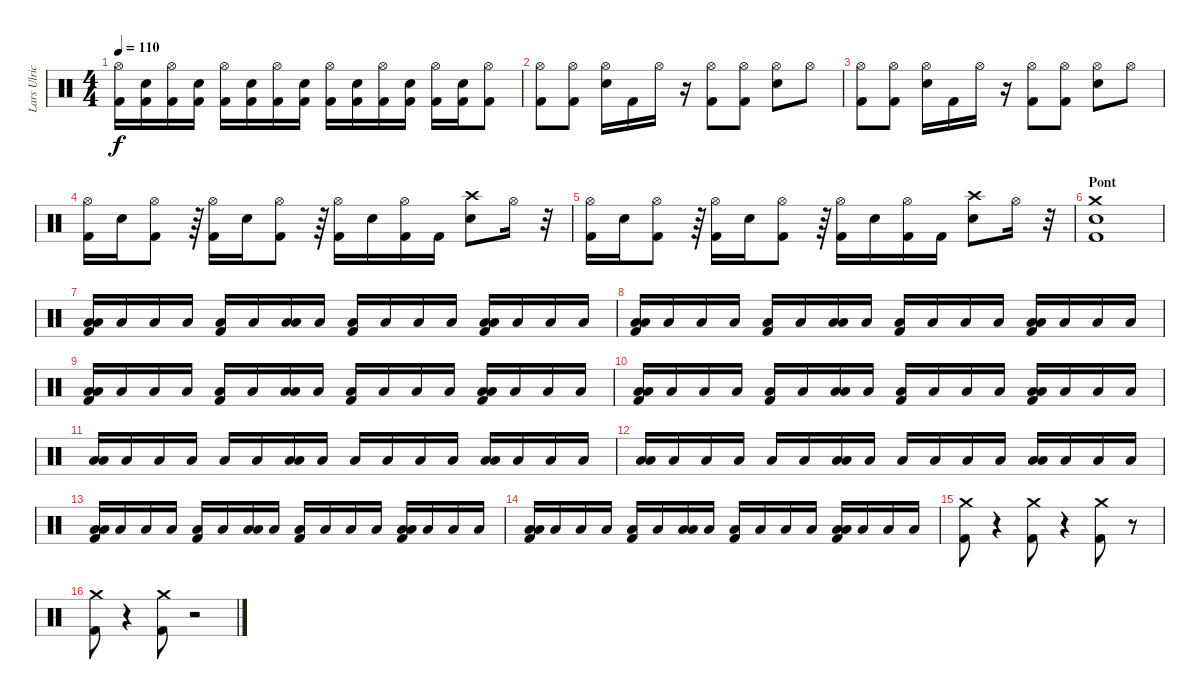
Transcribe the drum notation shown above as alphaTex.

\track ("Lars Ulrich" "Lars Ulric") {instrument percussion}
\staff {score}
\articulation defaults
\ts (4 4)
\tempo 110
\clef neutral
\ks c
("Hi-Hat (open)" "Kick (hit) 2").16{dy f} ("Electric Snare (hit)" "Kick (hit) 2").16 ("Hi-Hat (open)" "Kick (hit) 2").16 ("Electric Snare (hit)" "Kick (hit) 2").16 ("Hi-Hat (open)" "Kick (hit) 2").16 ("Electric Snare (hit)" "Kick (hit) 2").16 ("Hi-Hat (open)" "Kick (hit) 2").16 ("Electric Snare (hit)" "Kick (hit) 2").16 ("Hi-Hat (open)" "Kick (hit) 2").16 ("Electric Snare (hit)" "Kick (hit) 2").16 ("Hi-Hat (open)" "Kick (hit) 2").16 ("Electric Snare (hit)" "Kick (hit) 2").16 ("Hi-Hat (open)" "Kick (hit) 2").16 ("Electric Snare (hit)" "Kick (hit) 2").16 ("Hi-Hat (open)" "Kick (hit) 2").8 |
("Hi-Hat (open)" "Kick (hit) 2").8 ("Hi-Hat (open)" "Kick (hit) 2").8 ("Hi-Hat (open)" "Electric Snare (hit)").16 "Kick (hit) 2".16 "Hi-Hat (open)".16 r.16 ("Hi-Hat (open)" "Kick (hit) 2").8 ("Hi-Hat (open)" "Kick (hit) 2").8 ("Hi-Hat (open)" "Electric Snare (hit)").8 "Hi-Hat (open)".8 |
("Hi-Hat (open)" "Kick (hit) 2").8 ("Hi-Hat (open)" "Kick (hit) 2").8 ("Hi-Hat (open)" "Electric Snare (hit)").16 "Kick (hit) 2".16 "Hi-Hat (open)".16 r.16 ("Hi-Hat (open)" "Kick (hit) 2").8 ("Hi-Hat (open)" "Kick (hit) 2").8 ("Hi-Hat (open)" "Electric Snare (hit)").8 "Hi-Hat (open)".8 |
("Hi-Hat (open)" "Kick (hit) 2").16 "Electric Snare (hit)".16 ("Hi-Hat (open)" "Kick (hit) 2").8 r.64 ("Hi-Hat (open)" "Kick (hit) 2").16 "Electric Snare (hit)".16 ("Hi-Hat (open)" "Kick (hit) 2").8 r.64 ("Hi-Hat (open)" "Kick (hit) 2").16 "Electric Snare (hit)".16 ("Hi-Hat (open)" "Kick (hit) 2").16 "Kick (hit) 2".16 ("Crash high (hit)" "Electric Snare (hit)").8 "Hi-Hat (open)".16 r.32 |
("Hi-Hat (open)" "Kick (hit) 2").16 "Electric Snare (hit)".16 ("Hi-Hat (open)" "Kick (hit) 2").8 r.64 ("Hi-Hat (open)" "Kick (hit) 2").16 "Electric Snare (hit)".16 ("Hi-Hat (open)" "Kick (hit) 2").8 r.64 ("Hi-Hat (open)" "Kick (hit) 2").16 "Electric Snare (hit)".16 ("Hi-Hat (open)" "Kick (hit) 2").16 "Kick (hit) 2".16 ("Crash high (hit)" "Electric Snare (hit)").8 "Hi-Hat (open)".16 r.32 |
\section ("" "Pont")
("Crash medium (hit)" "Electric Snare (hit)" "Kick (hit) 2").1 |
("Low Tom (hit)" "Low Floor Tom (hit)" "Kick (hit) 2").16 "Low Floor Tom (hit)".16 "Low Floor Tom (hit)".16 "Low Floor Tom (hit)".16 ("Low Floor Tom (hit)" "Kick (hit) 2").16 "Low Floor Tom (hit)".16 ("Low Tom (hit)" "Low Floor Tom (hit)").16 "Low Floor Tom (hit)".16 ("Low Floor Tom (hit)" "Kick (hit) 2").16 "Low Floor Tom (hit)".16 "Low Floor Tom (hit)".16 "Low Floor Tom (hit)".16 ("Low Tom (hit)" "Low Floor Tom (hit)" "Kick (hit) 2").16 "Low Floor Tom (hit)".16 "Low Floor Tom (hit)".16 "Low Floor Tom (hit)".16 |
("Low Tom (hit)" "Low Floor Tom (hit)" "Kick (hit) 2").16 "Low Floor Tom (hit)".16 "Low Floor Tom (hit)".16 "Low Floor Tom (hit)".16 ("Low Floor Tom (hit)" "Kick (hit) 2").16 "Low Floor Tom (hit)".16 ("Low Tom (hit)" "Low Floor Tom (hit)").16 "Low Floor Tom (hit)".16 ("Low Floor Tom (hit)" "Kick (hit) 2").16 "Low Floor Tom (hit)".16 "Low Floor Tom (hit)".16 "Low Floor Tom (hit)".16 ("Low Tom (hit)" "Low Floor Tom (hit)" "Kick (hit) 2").16 "Low Floor Tom (hit)".16 "Low Floor Tom (hit)".16 "Low Floor Tom (hit)".16 |
("Low Tom (hit)" "Low Floor Tom (hit)" "Kick (hit) 2").16 "Low Floor Tom (hit)".16 "Low Floor Tom (hit)".16 "Low Floor Tom (hit)".16 ("Low Floor Tom (hit)" "Kick (hit) 2").16 "Low Floor Tom (hit)".16 ("Low Tom (hit)" "Low Floor Tom (hit)").16 "Low Floor Tom (hit)".16 ("Low Floor Tom (hit)" "Kick (hit) 2").16 "Low Floor Tom (hit)".16 "Low Floor Tom (hit)".16 "Low Floor Tom (hit)".16 ("Low Tom (hit)" "Low Floor Tom (hit)" "Kick (hit) 2").16 "Low Floor Tom (hit)".16 "Low Floor Tom (hit)".16 "Low Floor Tom (hit)".16 |
("Low Tom (hit)" "Low Floor Tom (hit)" "Kick (hit) 2").16 "Low Floor Tom (hit)".16 "Low Floor Tom (hit)".16 "Low Floor Tom (hit)".16 ("Low Floor Tom (hit)" "Kick (hit) 2").16 "Low Floor Tom (hit)".16 ("Low Tom (hit)" "Low Floor Tom (hit)").16 "Low Floor Tom (hit)".16 ("Low Floor Tom (hit)" "Kick (hit) 2").16 "Low Floor Tom (hit)".16 "Low Floor Tom (hit)".16 "Low Floor Tom (hit)".16 ("Low Tom (hit)" "Low Floor Tom (hit)" "Kick (hit) 2").16 "Low Floor Tom (hit)".16 "Low Floor Tom (hit)".16 "Low Floor Tom (hit)".16 |
("Low Tom (hit)" "Low Floor Tom (hit)").16 "Low Floor Tom (hit)".16 "Low Floor Tom (hit)".16 "Low Floor Tom (hit)".16 "Low Floor Tom (hit)".16 "Low Floor Tom (hit)".16 ("Low Tom (hit)" "Low Floor Tom (hit)").16 "Low Floor Tom (hit)".16 "Low Floor Tom (hit)".16 "Low Floor Tom (hit)".16 "Low Floor Tom (hit)".16 "Low Floor Tom (hit)".16 ("Low Tom (hit)" "Low Floor Tom (hit)").16 "Low Floor Tom (hit)".16 "Low Floor Tom (hit)".16 "Low Floor Tom (hit)".16 |
("Low Tom (hit)" "Low Floor Tom (hit)").16 "Low Floor Tom (hit)".16 "Low Floor Tom (hit)".16 "Low Floor Tom (hit)".16 "Low Floor Tom (hit)".16 "Low Floor Tom (hit)".16 ("Low Tom (hit)" "Low Floor Tom (hit)").16 "Low Floor Tom (hit)".16 "Low Floor Tom (hit)".16 "Low Floor Tom (hit)".16 "Low Floor Tom (hit)".16 "Low Floor Tom (hit)".16 ("Low Tom (hit)" "Low Floor Tom (hit)").16 "Low Floor Tom (hit)".16 "Low Floor Tom (hit)".16 "Low Floor Tom (hit)".16 |
("Low Tom (hit)" "Low Floor Tom (hit)" "Kick (hit) 2").16 "Low Floor Tom (hit)".16 "Low Floor Tom (hit)".16 "Low Floor Tom (hit)".16 ("Low Floor Tom (hit)" "Kick (hit) 2").16 "Low Floor Tom (hit)".16 ("Low Tom (hit)" "Low Floor Tom (hit)").16 "Low Floor Tom (hit)".16 ("Low Floor Tom (hit)" "Kick (hit) 2").16 "Low Floor Tom (hit)".16 "Low Floor Tom (hit)".16 "Low Floor Tom (hit)".16 ("Low Tom (hit)" "Low Floor Tom (hit)" "Kick (hit) 2").16 "Low Floor Tom (hit)".16 "Low Floor Tom (hit)".16 "Low Floor Tom (hit)".16 |
("Low Tom (hit)" "Low Floor Tom (hit)" "Kick (hit) 2").16 "Low Floor Tom (hit)".16 "Low Floor Tom (hit)".16 "Low Floor Tom (hit)".16 ("Low Floor Tom (hit)" "Kick (hit) 2").16 "Low Floor Tom (hit)".16 ("Low Tom (hit)" "Low Floor Tom (hit)").16 "Low Floor Tom (hit)".16 ("Low Floor Tom (hit)" "Kick (hit) 2").16 "Low Floor Tom (hit)".16 "Low Floor Tom (hit)".16 "Low Floor Tom (hit)".16 ("Low Tom (hit)" "Low Floor Tom (hit)" "Kick (hit) 2").16 "Low Floor Tom (hit)".16 "Low Floor Tom (hit)".16 "Low Floor Tom (hit)".16 |
("Crash medium (hit)" "Kick (hit) 2").8 r.4 ("Crash medium (hit)" "Kick (hit) 2").8 r.4 ("Crash medium (hit)" "Kick (hit) 2").8 r.8 |
("Crash medium (hit)" "Kick (hit) 2").8 r.4 ("Crash medium (hit)" "Kick (hit) 2").8 r.2
